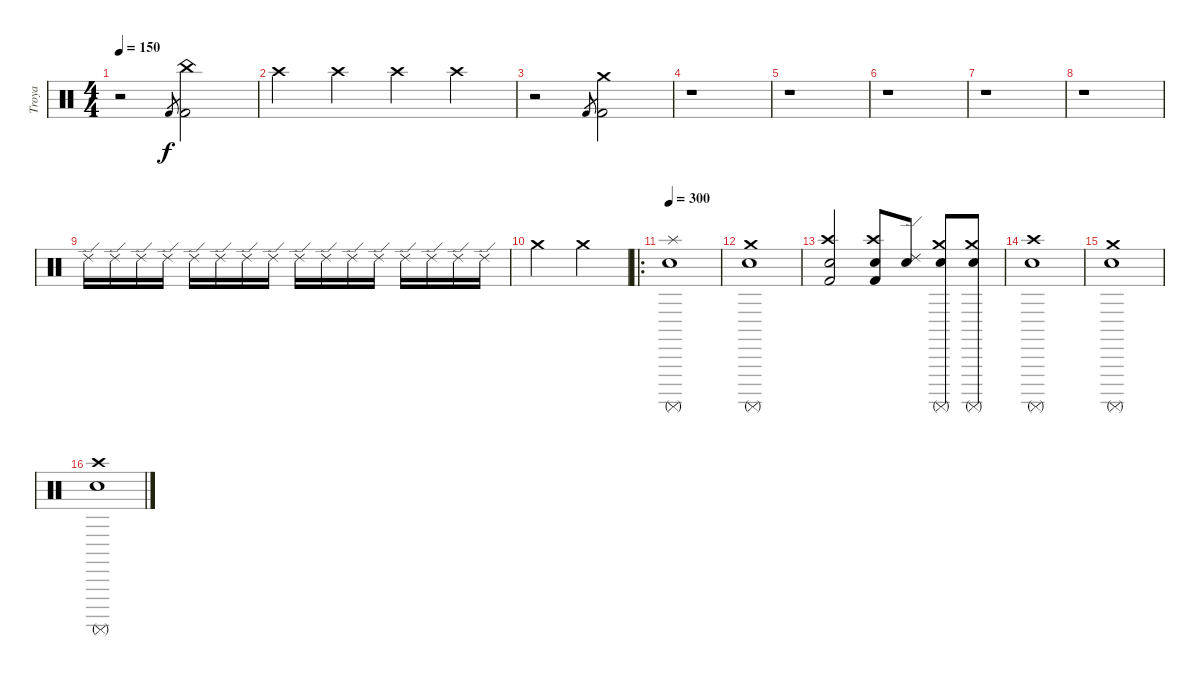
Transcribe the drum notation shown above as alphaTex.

\track ("Troya" "Troya") {instrument percussion}
\staff {score}
\articulation defaults
\ts (4 4)
\tempo 150
\clef neutral
\ks c
r.2{dy f} "Kick (hit) 2".8{gr} ("Kick (hit) 2" "China (hit)").2 |
"Crash high (hit)".4 "Crash high (hit)".4 "Crash high (hit)".4 "Crash high (hit)".4 |
r.2 "Kick (hit) 2".8{gr} ("Crash medium (hit)" "Kick (hit) 2").2 |
r.1 |
r.1 |
r.1 |
r.1 |
r.1 |
"Ride (edge) 2".16 "Ride (edge) 2".16 "Ride (edge) 2".16 "Ride (edge) 2".16 "Ride (edge) 2".16 "Ride (edge) 2".16 "Ride (edge) 2".16 "Ride (edge) 2".16 "Ride (edge) 2".16 "Ride (edge) 2".16 "Ride (edge) 2".16 "Ride (edge) 2".16 "Ride (edge) 2".16 "Ride (edge) 2".16 "Ride (edge) 2".16 "Ride (edge) 2".16 |
"Crash medium (hit)".2 "Crash medium (hit)".2 |
\ro
\tempo 300
("Splash (hit)" "Electric Snare (hit)" "Surdo (mute)").1 |
("Crash medium (hit)" "Electric Snare (hit)" "Surdo (mute)").1 |
("Crash high (hit)" "Kick (hit) 2" "Snare (hit) 2").2 ("Crash high (hit)" "Kick (hit) 2" "Snare (hit) 2").8 ("Ride (edge) 2" "Snare (hit) 2").8 ("Crash medium (hit)" "Surdo (mute)" "Electric Snare (hit)").8 ("Crash medium (hit)" "Surdo (mute)" "Electric Snare (hit)").8 |
("Crash high (hit)" "Electric Snare (hit)" "Surdo (mute)").1 |
("Crash medium (hit)" "Surdo (mute)" "Electric Snare (hit)").1 |
("Crash high (hit)" "Electric Snare (hit)" "Surdo (mute)").1
